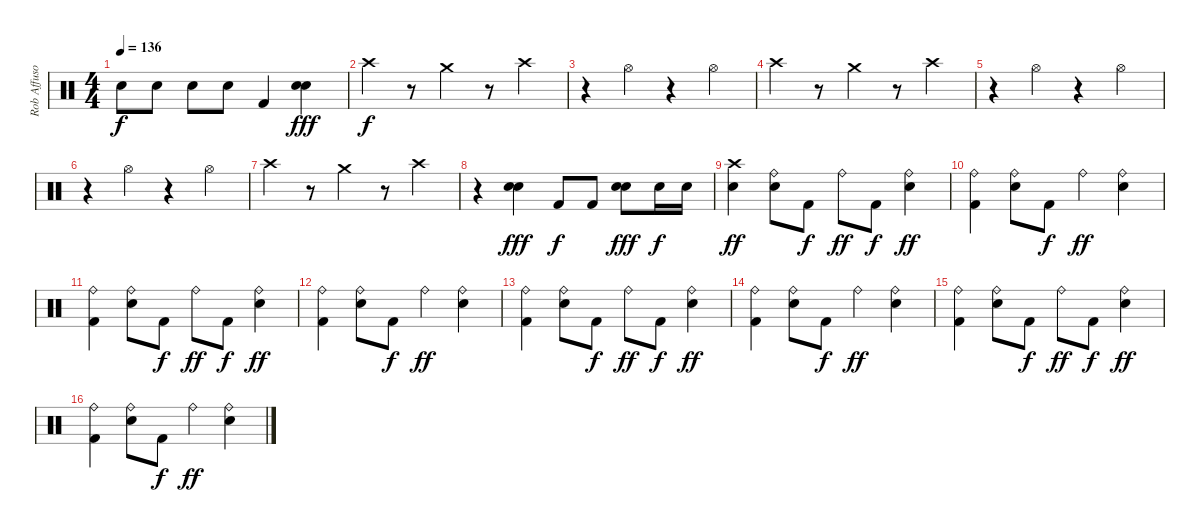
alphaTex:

\track ("Rob Affuso" "Rob Affuso") {instrument percussion}
\staff {score}
\articulation defaults
\ts (4 4)
\tempo 136
\clef neutral
\ks c "Snare (hit) 2".8{dy f} "Snare (hit) 2".8 "Snare (hit) 2".8 "Snare (hit) 2".8 "Kick (hit) 2".4
("Snare (hit) 2" "Snare (hit) 2").4{dy fff} |
"Crash high (hit)".4{dy f} r.8 "Crash medium (hit)".4 r.8 "Crash high (hit)".4 |
r.4 "Hi-Hat (open)".4 r.4 "Hi-Hat (open)".4 |
"Crash high (hit)".4 r.8 "Crash medium (hit)".4 r.8 "Crash high (hit)".4 |
r.4 "Hi-Hat (open)".4 r.4 "Hi-Hat (open)".4 |
r.4 "Hi-Hat (open)".4 r.4 "Hi-Hat (open)".4 |
"Crash high (hit)".4 r.8 "Crash medium (hit)".4 r.8 "Crash high (hit)".4 |
r.4 ("Snare (hit) 2" "Snare (hit) 2").4{dy fff} "Kick (hit) 2".8{dy f} "Kick (hit) 2".8 ("Snare (hit) 2" "Snare (hit) 2").8{dy fff} "Snare (hit) 2".16{dy f} "Snare (hit) 2".16 |
("Crash high (hit)" "Snare (hit) 2").4{dy ff} ("Ride (bell)" "Snare (hit) 2").8 "Kick (hit) 2".8{dy f} "Ride (bell)".8{dy ff} "Kick (hit) 2".8{dy f} ("Ride (bell)" "Snare (hit) 2").4{dy ff} |
("Ride (bell)" "Kick (hit) 2").4 ("Ride (bell)" "Snare (hit) 2").8 "Kick (hit) 2".8{dy f} "Ride (bell)".4{dy ff} ("Ride (bell)" "Snare (hit) 2").4 |
("Ride (bell)" "Kick (hit) 2").4 ("Ride (bell)" "Snare (hit) 2").8 "Kick (hit) 2".8{dy f} "Ride (bell)".8{dy ff} "Kick (hit) 2".8{dy f} ("Ride (bell)" "Snare (hit) 2").4{dy ff} |
("Ride (bell)" "Kick (hit) 2").4 ("Ride (bell)" "Snare (hit) 2").8 "Kick (hit) 2".8{dy f} "Ride (bell)".4{dy ff} ("Ride (bell)" "Snare (hit) 2").4 |
("Ride (bell)" "Kick (hit) 2").4 ("Ride (bell)" "Snare (hit) 2").8 "Kick (hit) 2".8{dy f} "Ride (bell)".8{dy ff} "Kick (hit) 2".8{dy f} ("Ride (bell)" "Snare (hit) 2").4{dy ff} |
("Ride (bell)" "Kick (hit) 2").4 ("Ride (bell)" "Snare (hit) 2").8 "Kick (hit) 2".8{dy f} "Ride (bell)".4{dy ff} ("Ride (bell)" "Snare (hit) 2").4 |
("Ride (bell)" "Kick (hit) 2").4 ("Ride (bell)" "Snare (hit) 2").8 "Kick (hit) 2".8{dy f} "Ride (bell)".8{dy ff} "Kick (hit) 2".8{dy f} ("Ride (bell)" "Snare (hit) 2").4{dy ff} |
("Ride (bell)" "Kick (hit) 2").4 ("Ride (bell)" "Snare (hit) 2").8 "Kick (hit) 2".8{dy f} "Ride (bell)".4{dy ff} ("Ride (bell)" "Snare (hit) 2").4
